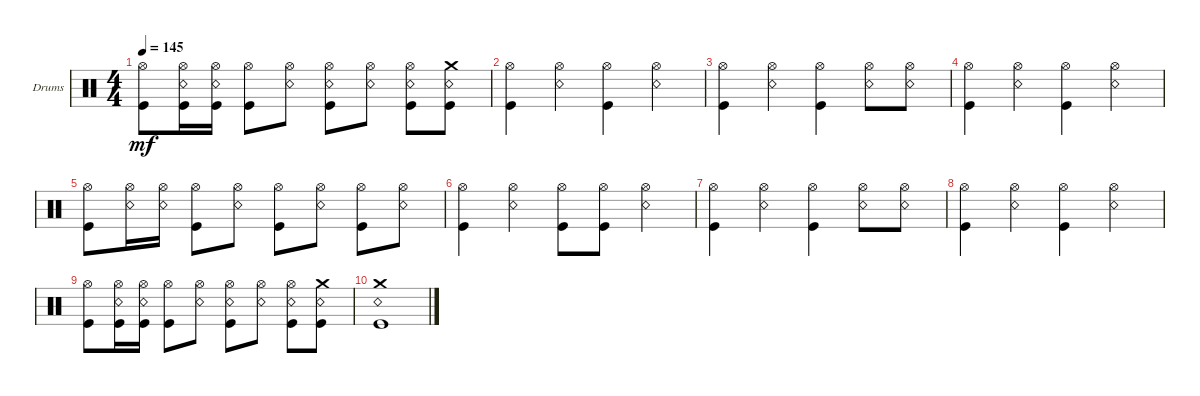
\defaultSystemsLayout 4
\bracketExtendMode groupsimilarinstruments
\firstSystemTrackNameOrientation horizontal
\otherSystemsTrackNameOrientation horizontal
\track ("Drumkit" "Drums") {instrument percussion}
\staff {score}
\articulation defaults
\ts (4 4)
\tempo 145
\clef neutral
\ks c
("Kick (hit)" "Hi-Hat (open)").8{dy mf} ("Snare (rim shot)" "Hi-Hat (open)" "Kick (hit)").16 ("Snare (rim shot)" "Hi-Hat (open)" "Kick (hit)").16 ("Kick (hit)" "Hi-Hat (open)").8 ("Snare (rim shot)" "Hi-Hat (open)").8 ("Kick (hit)" "Snare (rim shot)" "Hi-Hat (open)").8 ("Snare (rim shot)" "Hi-Hat (open)").8 ("Kick (hit)" "Snare (rim shot)" "Hi-Hat (open)").8 ("Snare (rim shot)" "Crash medium (hit)" "Kick (hit)").8 |
("Kick (hit)" "Hi-Hat (open)").4 ("Snare (rim shot)" "Hi-Hat (open)").4 ("Kick (hit)" "Hi-Hat (open)").4 ("Snare (rim shot)" "Hi-Hat (open)").4 |
("Kick (hit)" "Hi-Hat (open)").4 ("Snare (rim shot)" "Hi-Hat (open)").4 ("Kick (hit)" "Hi-Hat (open)").4 ("Snare (rim shot)" "Hi-Hat (open)").8 ("Snare (rim shot)" "Hi-Hat (open)").8 |
("Kick (hit)" "Hi-Hat (open)").4 ("Snare (rim shot)" "Hi-Hat (open)").4 ("Kick (hit)" "Hi-Hat (open)").4 ("Snare (rim shot)" "Hi-Hat (open)").4 |
("Kick (hit)" "Hi-Hat (open)").8 ("Snare (rim shot)" "Hi-Hat (open)").16 ("Snare (rim shot)" "Hi-Hat (open)").16 ("Kick (hit)" "Hi-Hat (open)").8 ("Snare (rim shot)" "Hi-Hat (open)").8 ("Kick (hit)" "Hi-Hat (open)").8 ("Snare (rim shot)" "Hi-Hat (open)").8 ("Kick (hit)" "Hi-Hat (open)").8 ("Snare (rim shot)" "Hi-Hat (open)").8 |
("Kick (hit)" "Hi-Hat (open)").4 ("Snare (rim shot)" "Hi-Hat (open)").4 ("Kick (hit)" "Hi-Hat (open)").8 ("Kick (hit)" "Hi-Hat (open)").8 ("Snare (rim shot)" "Hi-Hat (open)").4 |
("Kick (hit)" "Hi-Hat (open)").4 ("Snare (rim shot)" "Hi-Hat (open)").4 ("Kick (hit)" "Hi-Hat (open)").4 ("Snare (rim shot)" "Hi-Hat (open)").8 ("Snare (rim shot)" "Hi-Hat (open)").8 |
("Kick (hit)" "Hi-Hat (open)").4 ("Snare (rim shot)" "Hi-Hat (open)").4 ("Kick (hit)" "Hi-Hat (open)").4 ("Snare (rim shot)" "Hi-Hat (open)").4 |
("Kick (hit)" "Hi-Hat (open)").8 ("Snare (rim shot)" "Hi-Hat (open)" "Kick (hit)").16 ("Snare (rim shot)" "Hi-Hat (open)" "Kick (hit)").16 ("Kick (hit)" "Hi-Hat (open)").8 ("Snare (rim shot)" "Hi-Hat (open)").8 ("Kick (hit)" "Snare (rim shot)" "Hi-Hat (open)").8 ("Snare (rim shot)" "Hi-Hat (open)").8 ("Kick (hit)" "Snare (rim shot)" "Hi-Hat (open)").8 ("Snare (rim shot)" "Crash medium (hit)" "Kick (hit)").8 |
("Crash medium (hit)" "Snare (rim shot)" "Kick (hit)").1
